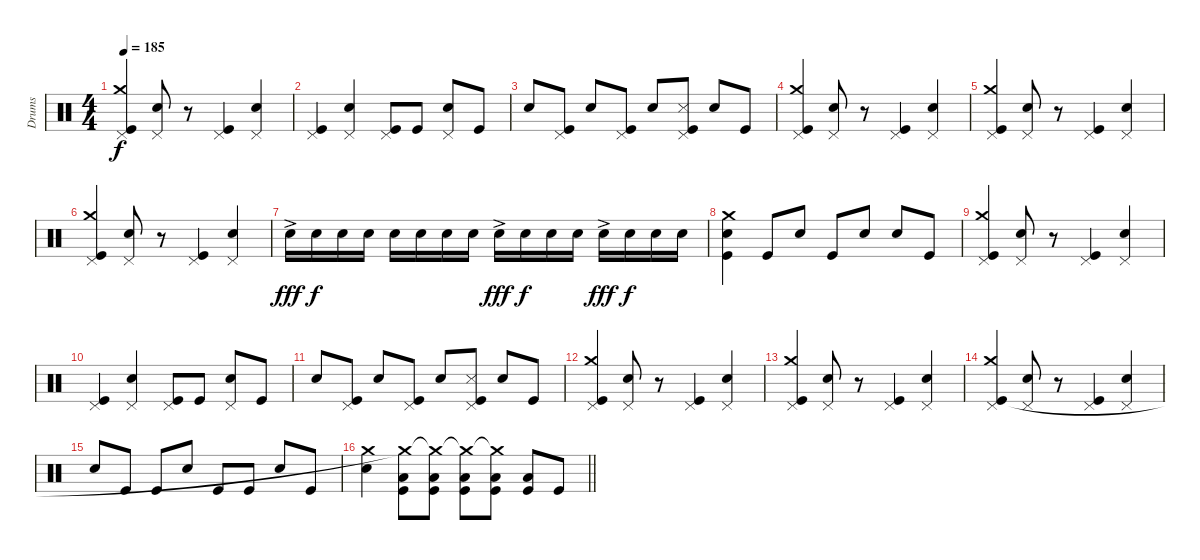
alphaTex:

\track ("Drums" "Drums") {instrument percussion}
\staff {score}
\articulation defaults
\ts (4 4)
\tempo 185
\clef neutral
\ks c
("Pedal Hi-Hat (hit)" "Crash medium (hit)" "Kick (hit)").4{dy f} ("Pedal Hi-Hat (hit)" "Snare (hit) 2").8 r.8 ("Pedal Hi-Hat (hit)" "Kick (hit)").4 ("Pedal Hi-Hat (hit)" "Snare (hit) 2").4 |
("Pedal Hi-Hat (hit)" "Kick (hit)").4 ("Pedal Hi-Hat (hit)" "Snare (hit) 2").4 ("Pedal Hi-Hat (hit)" "Kick (hit)").8 "Kick (hit)".8 ("Pedal Hi-Hat (hit)" "Snare (hit) 2").8 "Kick (hit)".8 |
"Snare (hit) 2".8 ("Pedal Hi-Hat (hit)" "Kick (hit)").8 "Snare (hit) 2".8 ("Pedal Hi-Hat (hit)" "Kick (hit)").8 "Snare (hit) 2".8 ("Pedal Hi-Hat (hit)" "Snare (side stick) 3" "Kick (hit)").8 "Snare (hit) 2".8 "Kick (hit)".8 |
("Pedal Hi-Hat (hit)" "Crash medium (hit)" "Kick (hit)").4 ("Pedal Hi-Hat (hit)" "Snare (hit) 2").8 r.8 ("Pedal Hi-Hat (hit)" "Kick (hit)").4 ("Pedal Hi-Hat (hit)" "Snare (hit) 2").4 |
("Pedal Hi-Hat (hit)" "Crash medium (hit)" "Kick (hit)").4 ("Pedal Hi-Hat (hit)" "Snare (hit) 2").8 r.8 ("Pedal Hi-Hat (hit)" "Kick (hit)").4 ("Pedal Hi-Hat (hit)" "Snare (hit) 2").4 |
("Pedal Hi-Hat (hit)" "Crash medium (hit)" "Kick (hit)").4 ("Pedal Hi-Hat (hit)" "Snare (hit) 2").8 r.8 ("Pedal Hi-Hat (hit)" "Kick (hit)").4 ("Pedal Hi-Hat (hit)" "Snare (hit) 2").4 |
"Snare (hit) 2"{ac}.16{dy fff} "Snare (hit) 2".16{dy f} "Snare (hit) 2".16 "Snare (hit) 2".16 "Snare (hit) 2".16 "Snare (hit) 2".16 "Snare (hit) 2".16 "Snare (hit) 2".16 "Snare (hit) 2"{ac}.16{dy fff} "Snare (hit) 2".16{dy f} "Snare (hit) 2".16 "Snare (hit) 2".16 "Snare (hit) 2"{ac}.16{dy fff} "Snare (hit) 2".16{dy f} "Snare (hit) 2".16 "Snare (hit) 2".16 |
("Kick (hit)" "Snare (hit) 2" "Crash medium (hit)").4 "Kick (hit)".8 "Snare (hit) 2".8 "Kick (hit)".8 "Snare (hit) 2".8 "Snare (hit) 2".8 "Kick (hit)".8 |
("Pedal Hi-Hat (hit)" "Crash medium (hit)" "Kick (hit)").4 ("Pedal Hi-Hat (hit)" "Snare (hit) 2").8 r.8 ("Pedal Hi-Hat (hit)" "Kick (hit)").4 ("Pedal Hi-Hat (hit)" "Snare (hit) 2").4 |
("Pedal Hi-Hat (hit)" "Kick (hit)").4 ("Pedal Hi-Hat (hit)" "Snare (hit) 2").4 ("Pedal Hi-Hat (hit)" "Kick (hit)").8 "Kick (hit)".8 ("Pedal Hi-Hat (hit)" "Snare (hit) 2").8 "Kick (hit)".8 |
"Snare (hit) 2".8 ("Pedal Hi-Hat (hit)" "Kick (hit)").8 "Snare (hit) 2".8 ("Pedal Hi-Hat (hit)" "Kick (hit)").8 "Snare (hit) 2".8 ("Pedal Hi-Hat (hit)" "Snare (side stick) 3" "Kick (hit)").8 "Snare (hit) 2".8 "Kick (hit)".8 |
("Pedal Hi-Hat (hit)" "Crash medium (hit)" "Kick (hit)").4 ("Pedal Hi-Hat (hit)" "Snare (hit) 2").8 r.8 ("Pedal Hi-Hat (hit)" "Kick (hit)").4 ("Pedal Hi-Hat (hit)" "Snare (hit) 2").4 |
("Pedal Hi-Hat (hit)" "Crash medium (hit)" "Kick (hit)").4 ("Pedal Hi-Hat (hit)" "Snare (hit) 2").8 r.8 ("Pedal Hi-Hat (hit)" "Kick (hit)").4 ("Pedal Hi-Hat (hit)" "Snare (hit) 2").4 |
("Pedal Hi-Hat (hit)" "Crash medium (hit)" "Kick (hit)").4 ("Pedal Hi-Hat (hit)" "Snare (hit) 2").8 r.8 ("Pedal Hi-Hat (hit)" "Kick (hit)").4 ("Pedal Hi-Hat (hit)" "Snare (hit) 2").4 |
"Snare (hit) 2".8 "Kick (hit)".8 "Kick (hit)".8 "Snare (hit) 2".8 "Kick (hit)".8 "Kick (hit)".8 "Snare (hit) 2".8 "Kick (hit)".8 |
\barLineRight lightlight
("Snare (hit) 2" "Crash medium (hit)").4 ("Low Tom (hit)" "Kick (hit)" "Crash medium (hit)"{t}).8{volume 5} ("Low Tom (hit)" "Kick (hit)" "Crash medium (hit)"{t}).8{volume 8} ("Low Tom (hit)" "Kick (hit)" "Crash medium (hit)"{t}).8{volume 8} ("Low Tom (hit)" "Kick (hit)" "Crash medium (hit)"{t}).8{volume 11} ("Low Tom (hit)" "Kick (hit)").8{volume 12} "Kick (hit)".8
